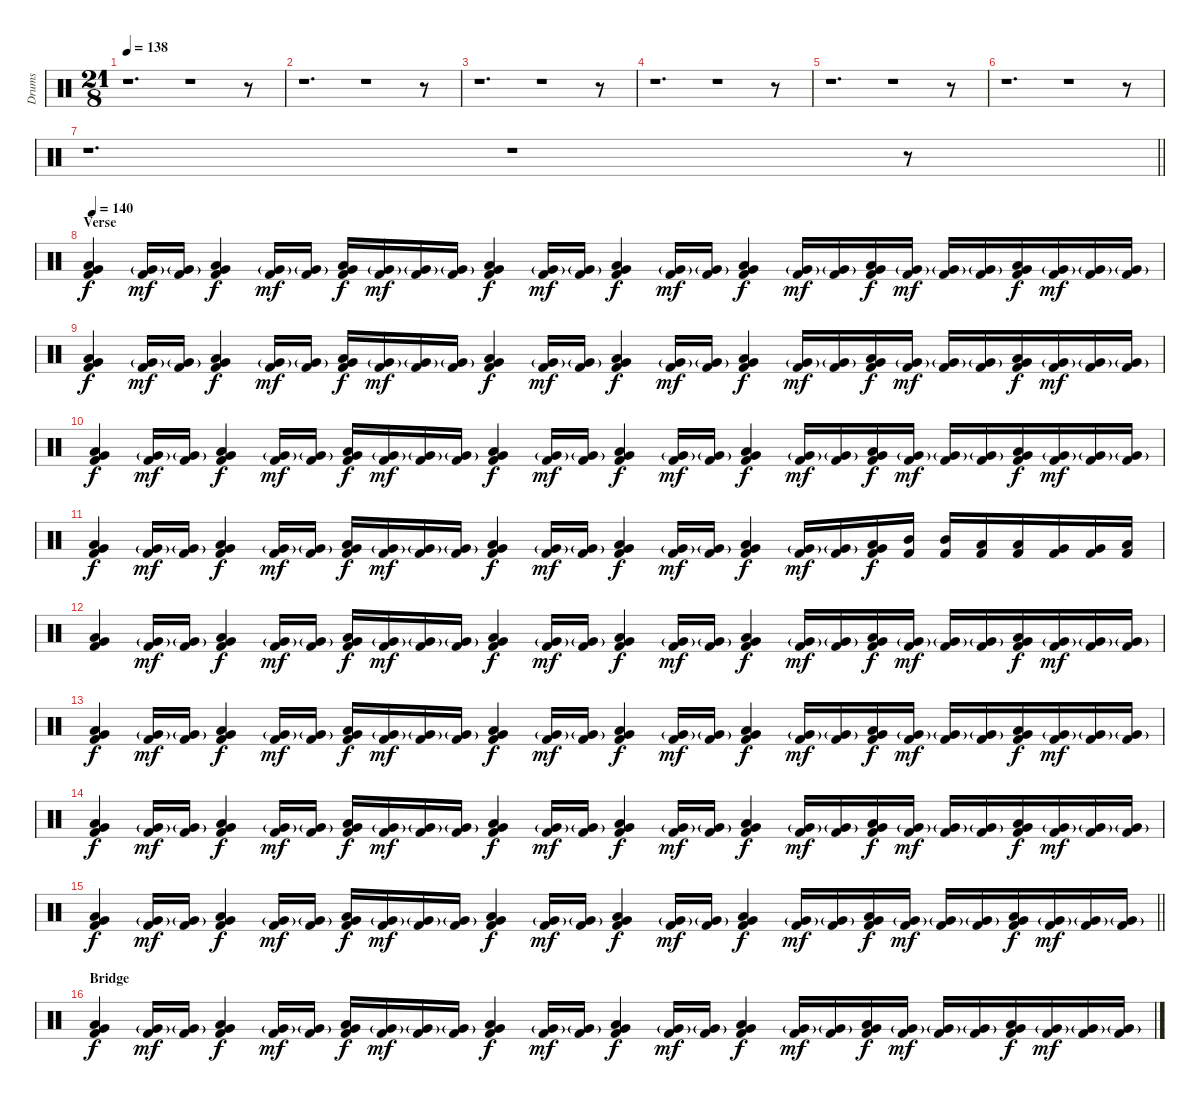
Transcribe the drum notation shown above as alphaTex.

\track ("Drums" "Drums") {instrument percussion}
\staff {score}
\articulation defaults
\ts (21 8)
\tempo 138
\clef neutral
\ks c
r.1{d dy f} r.1 r.8 |
r.1{d} r.1 r.8 |
r.1{d} r.1 r.8 |
r.1{d} r.1 r.8 |
r.1{d} r.1 r.8 |
r.1{d} r.1 r.8 |
\barLineRight lightlight
r.1{d} r.1 r.8 |
\section ("" "Verse")
\tempo 140
("Low Tom (hit)" "Very Low Tom (hit)" "Kick (hit) 2").4 ("Very Low Tom (hit)"{g} "Kick (hit) 2").16{dy mf} ("Very Low Tom (hit)"{g} "Kick (hit) 2").16 ("Low Tom (hit)" "Very Low Tom (hit)" "Kick (hit) 2").4{dy f} ("Very Low Tom (hit)"{g} "Kick (hit) 2").16{dy mf} ("Very Low Tom (hit)"{g} "Kick (hit) 2").16 ("Low Tom (hit)" "Very Low Tom (hit)" "Kick (hit) 2").16{dy f} ("Very Low Tom (hit)"{g} "Kick (hit) 2").16{dy mf} ("Very Low Tom (hit)"{g} "Kick (hit) 2").16 ("Very Low Tom (hit)"{g} "Kick (hit) 2").16 ("Low Tom (hit)" "Very Low Tom (hit)" "Kick (hit) 2").4{dy f} ("Very Low Tom (hit)"{g} "Kick (hit) 2").16{dy mf} ("Very Low Tom (hit)"{g} "Kick (hit) 2").16 ("Low Tom (hit)" "Very Low Tom (hit)" "Kick (hit) 2").4{dy f} ("Very Low Tom (hit)"{g} "Kick (hit) 2").16{dy mf} ("Very Low Tom (hit)"{g} "Kick (hit) 2").16 ("Low Tom (hit)" "Very Low Tom (hit)" "Kick (hit) 2").4{dy f} ("Very Low Tom (hit)"{g} "Kick (hit) 2").16{dy mf} ("Very Low Tom (hit)"{g} "Kick (hit) 2").16 ("Low Tom (hit)" "Very Low Tom (hit)" "Kick (hit) 2").16{dy f} ("Very Low Tom (hit)"{g} "Kick (hit) 2").16{dy mf} ("Very Low Tom (hit)"{g} "Kick (hit) 2").16 ("Very Low Tom (hit)"{g} "Kick (hit) 2").16 ("Low Tom (hit)" "Very Low Tom (hit)" "Kick (hit) 2").16{dy f} ("Very Low Tom (hit)"{g} "Kick (hit) 2").16{dy mf} ("Very Low Tom (hit)"{g} "Kick (hit) 2").16 ("Very Low Tom (hit)"{g} "Kick (hit) 2").16 |
("Low Tom (hit)" "Very Low Tom (hit)" "Kick (hit) 2").4{dy f} ("Very Low Tom (hit)"{g} "Kick (hit) 2").16{dy mf} ("Very Low Tom (hit)"{g} "Kick (hit) 2").16 ("Low Tom (hit)" "Very Low Tom (hit)" "Kick (hit) 2").4{dy f} ("Very Low Tom (hit)"{g} "Kick (hit) 2").16{dy mf} ("Very Low Tom (hit)"{g} "Kick (hit) 2").16 ("Low Tom (hit)" "Very Low Tom (hit)" "Kick (hit) 2").16{dy f} ("Very Low Tom (hit)"{g} "Kick (hit) 2").16{dy mf} ("Very Low Tom (hit)"{g} "Kick (hit) 2").16 ("Very Low Tom (hit)"{g} "Kick (hit) 2").16 ("Low Tom (hit)" "Very Low Tom (hit)" "Kick (hit) 2").4{dy f} ("Very Low Tom (hit)"{g} "Kick (hit) 2").16{dy mf} ("Very Low Tom (hit)"{g} "Kick (hit) 2").16 ("Low Tom (hit)" "Very Low Tom (hit)" "Kick (hit) 2").4{dy f} ("Very Low Tom (hit)"{g} "Kick (hit) 2").16{dy mf} ("Very Low Tom (hit)"{g} "Kick (hit) 2").16 ("Low Tom (hit)" "Very Low Tom (hit)" "Kick (hit) 2").4{dy f} ("Very Low Tom (hit)"{g} "Kick (hit) 2").16{dy mf} ("Very Low Tom (hit)"{g} "Kick (hit) 2").16 ("Low Tom (hit)" "Very Low Tom (hit)" "Kick (hit) 2").16{dy f} ("Very Low Tom (hit)"{g} "Kick (hit) 2").16{dy mf} ("Very Low Tom (hit)"{g} "Kick (hit) 2").16 ("Very Low Tom (hit)"{g} "Kick (hit) 2").16 ("Low Tom (hit)" "Very Low Tom (hit)" "Kick (hit) 2").16{dy f} ("Very Low Tom (hit)"{g} "Kick (hit) 2").16{dy mf} ("Very Low Tom (hit)"{g} "Kick (hit) 2").16 ("Very Low Tom (hit)"{g} "Kick (hit) 2").16 |
("Low Tom (hit)" "Very Low Tom (hit)" "Kick (hit) 2").4{dy f} ("Very Low Tom (hit)"{g} "Kick (hit) 2").16{dy mf} ("Very Low Tom (hit)"{g} "Kick (hit) 2").16 ("Low Tom (hit)" "Very Low Tom (hit)" "Kick (hit) 2").4{dy f} ("Very Low Tom (hit)"{g} "Kick (hit) 2").16{dy mf} ("Very Low Tom (hit)"{g} "Kick (hit) 2").16 ("Low Tom (hit)" "Very Low Tom (hit)" "Kick (hit) 2").16{dy f} ("Very Low Tom (hit)"{g} "Kick (hit) 2").16{dy mf} ("Very Low Tom (hit)"{g} "Kick (hit) 2").16 ("Very Low Tom (hit)"{g} "Kick (hit) 2").16 ("Low Tom (hit)" "Very Low Tom (hit)" "Kick (hit) 2").4{dy f} ("Very Low Tom (hit)"{g} "Kick (hit) 2").16{dy mf} ("Very Low Tom (hit)"{g} "Kick (hit) 2").16 ("Low Tom (hit)" "Very Low Tom (hit)" "Kick (hit) 2").4{dy f} ("Very Low Tom (hit)"{g} "Kick (hit) 2").16{dy mf} ("Very Low Tom (hit)"{g} "Kick (hit) 2").16 ("Low Tom (hit)" "Very Low Tom (hit)" "Kick (hit) 2").4{dy f} ("Very Low Tom (hit)"{g} "Kick (hit) 2").16{dy mf} ("Very Low Tom (hit)"{g} "Kick (hit) 2").16 ("Low Tom (hit)" "Very Low Tom (hit)" "Kick (hit) 2").16{dy f} ("Very Low Tom (hit)"{g} "Kick (hit) 2").16{dy mf} ("Very Low Tom (hit)"{g} "Kick (hit) 2").16 ("Very Low Tom (hit)"{g} "Kick (hit) 2").16 ("Low Tom (hit)" "Very Low Tom (hit)" "Kick (hit) 2").16{dy f} ("Very Low Tom (hit)"{g} "Kick (hit) 2").16{dy mf} ("Very Low Tom (hit)"{g} "Kick (hit) 2").16 ("Very Low Tom (hit)"{g} "Kick (hit) 2").16 |
("Low Tom (hit)" "Very Low Tom (hit)" "Kick (hit) 2").4{dy f} ("Very Low Tom (hit)"{g} "Kick (hit) 2").16{dy mf} ("Very Low Tom (hit)"{g} "Kick (hit) 2").16 ("Low Tom (hit)" "Very Low Tom (hit)" "Kick (hit) 2").4{dy f} ("Very Low Tom (hit)"{g} "Kick (hit) 2").16{dy mf} ("Very Low Tom (hit)"{g} "Kick (hit) 2").16 ("Low Tom (hit)" "Very Low Tom (hit)" "Kick (hit) 2").16{dy f} ("Very Low Tom (hit)"{g} "Kick (hit) 2").16{dy mf} ("Very Low Tom (hit)"{g} "Kick (hit) 2").16 ("Very Low Tom (hit)"{g} "Kick (hit) 2").16 ("Low Tom (hit)" "Very Low Tom (hit)" "Kick (hit) 2").4{dy f} ("Very Low Tom (hit)"{g} "Kick (hit) 2").16{dy mf} ("Very Low Tom (hit)"{g} "Kick (hit) 2").16 ("Low Tom (hit)" "Very Low Tom (hit)" "Kick (hit) 2").4{dy f} ("Very Low Tom (hit)"{g} "Kick (hit) 2").16{dy mf} ("Very Low Tom (hit)"{g} "Kick (hit) 2").16 ("Low Tom (hit)" "Very Low Tom (hit)" "Kick (hit) 2").4{dy f} ("Very Low Tom (hit)"{g} "Kick (hit) 2").16{dy mf} ("Very Low Tom (hit)"{g} "Kick (hit) 2").16 ("Low Tom (hit)" "Very Low Tom (hit)" "Kick (hit) 2").16{dy f} ("Mid Tom (hit)" "Kick (hit) 2").16 ("Mid Tom (hit)" "Kick (hit) 2").16 ("Low Tom (hit)" "Kick (hit) 2").16 ("Low Tom (hit)" "Kick (hit) 2").16 ("Very Low Tom (hit)" "Kick (hit) 2").16 ("Very Low Tom (hit)" "Kick (hit) 2").16 ("Low Floor Tom (hit)" "Kick (hit) 2").16 |
("Low Tom (hit)" "Very Low Tom (hit)" "Kick (hit) 2").4 ("Very Low Tom (hit)"{g} "Kick (hit) 2").16{dy mf} ("Very Low Tom (hit)"{g} "Kick (hit) 2").16 ("Low Tom (hit)" "Very Low Tom (hit)" "Kick (hit) 2").4{dy f} ("Very Low Tom (hit)"{g} "Kick (hit) 2").16{dy mf} ("Very Low Tom (hit)"{g} "Kick (hit) 2").16 ("Low Tom (hit)" "Very Low Tom (hit)" "Kick (hit) 2").16{dy f} ("Very Low Tom (hit)"{g} "Kick (hit) 2").16{dy mf} ("Very Low Tom (hit)"{g} "Kick (hit) 2").16 ("Very Low Tom (hit)"{g} "Kick (hit) 2").16 ("Low Tom (hit)" "Very Low Tom (hit)" "Kick (hit) 2").4{dy f} ("Very Low Tom (hit)"{g} "Kick (hit) 2").16{dy mf} ("Very Low Tom (hit)"{g} "Kick (hit) 2").16 ("Low Tom (hit)" "Very Low Tom (hit)" "Kick (hit) 2").4{dy f} ("Very Low Tom (hit)"{g} "Kick (hit) 2").16{dy mf} ("Very Low Tom (hit)"{g} "Kick (hit) 2").16 ("Low Tom (hit)" "Very Low Tom (hit)" "Kick (hit) 2").4{dy f} ("Very Low Tom (hit)"{g} "Kick (hit) 2").16{dy mf} ("Very Low Tom (hit)"{g} "Kick (hit) 2").16 ("Low Tom (hit)" "Very Low Tom (hit)" "Kick (hit) 2").16{dy f} ("Very Low Tom (hit)"{g} "Kick (hit) 2").16{dy mf} ("Very Low Tom (hit)"{g} "Kick (hit) 2").16 ("Very Low Tom (hit)"{g} "Kick (hit) 2").16 ("Low Tom (hit)" "Very Low Tom (hit)" "Kick (hit) 2").16{dy f} ("Very Low Tom (hit)"{g} "Kick (hit) 2").16{dy mf} ("Very Low Tom (hit)"{g} "Kick (hit) 2").16 ("Very Low Tom (hit)"{g} "Kick (hit) 2").16 |
("Low Tom (hit)" "Very Low Tom (hit)" "Kick (hit) 2").4{dy f} ("Very Low Tom (hit)"{g} "Kick (hit) 2").16{dy mf} ("Very Low Tom (hit)"{g} "Kick (hit) 2").16 ("Low Tom (hit)" "Very Low Tom (hit)" "Kick (hit) 2").4{dy f} ("Very Low Tom (hit)"{g} "Kick (hit) 2").16{dy mf} ("Very Low Tom (hit)"{g} "Kick (hit) 2").16 ("Low Tom (hit)" "Very Low Tom (hit)" "Kick (hit) 2").16{dy f} ("Very Low Tom (hit)"{g} "Kick (hit) 2").16{dy mf} ("Very Low Tom (hit)"{g} "Kick (hit) 2").16 ("Very Low Tom (hit)"{g} "Kick (hit) 2").16 ("Low Tom (hit)" "Very Low Tom (hit)" "Kick (hit) 2").4{dy f} ("Very Low Tom (hit)"{g} "Kick (hit) 2").16{dy mf} ("Very Low Tom (hit)"{g} "Kick (hit) 2").16 ("Low Tom (hit)" "Very Low Tom (hit)" "Kick (hit) 2").4{dy f} ("Very Low Tom (hit)"{g} "Kick (hit) 2").16{dy mf} ("Very Low Tom (hit)"{g} "Kick (hit) 2").16 ("Low Tom (hit)" "Very Low Tom (hit)" "Kick (hit) 2").4{dy f} ("Very Low Tom (hit)"{g} "Kick (hit) 2").16{dy mf} ("Very Low Tom (hit)"{g} "Kick (hit) 2").16 ("Low Tom (hit)" "Very Low Tom (hit)" "Kick (hit) 2").16{dy f} ("Very Low Tom (hit)"{g} "Kick (hit) 2").16{dy mf} ("Very Low Tom (hit)"{g} "Kick (hit) 2").16 ("Very Low Tom (hit)"{g} "Kick (hit) 2").16 ("Low Tom (hit)" "Very Low Tom (hit)" "Kick (hit) 2").16{dy f} ("Very Low Tom (hit)"{g} "Kick (hit) 2").16{dy mf} ("Very Low Tom (hit)"{g} "Kick (hit) 2").16 ("Very Low Tom (hit)"{g} "Kick (hit) 2").16 |
("Low Tom (hit)" "Very Low Tom (hit)" "Kick (hit) 2").4{dy f} ("Very Low Tom (hit)"{g} "Kick (hit) 2").16{dy mf} ("Very Low Tom (hit)"{g} "Kick (hit) 2").16 ("Low Tom (hit)" "Very Low Tom (hit)" "Kick (hit) 2").4{dy f} ("Very Low Tom (hit)"{g} "Kick (hit) 2").16{dy mf} ("Very Low Tom (hit)"{g} "Kick (hit) 2").16 ("Low Tom (hit)" "Very Low Tom (hit)" "Kick (hit) 2").16{dy f} ("Very Low Tom (hit)"{g} "Kick (hit) 2").16{dy mf} ("Very Low Tom (hit)"{g} "Kick (hit) 2").16 ("Very Low Tom (hit)"{g} "Kick (hit) 2").16 ("Low Tom (hit)" "Very Low Tom (hit)" "Kick (hit) 2").4{dy f} ("Very Low Tom (hit)"{g} "Kick (hit) 2").16{dy mf} ("Very Low Tom (hit)"{g} "Kick (hit) 2").16 ("Low Tom (hit)" "Very Low Tom (hit)" "Kick (hit) 2").4{dy f} ("Very Low Tom (hit)"{g} "Kick (hit) 2").16{dy mf} ("Very Low Tom (hit)"{g} "Kick (hit) 2").16 ("Low Tom (hit)" "Very Low Tom (hit)" "Kick (hit) 2").4{dy f} ("Very Low Tom (hit)"{g} "Kick (hit) 2").16{dy mf} ("Very Low Tom (hit)"{g} "Kick (hit) 2").16 ("Low Tom (hit)" "Very Low Tom (hit)" "Kick (hit) 2").16{dy f} ("Very Low Tom (hit)"{g} "Kick (hit) 2").16{dy mf} ("Very Low Tom (hit)"{g} "Kick (hit) 2").16 ("Very Low Tom (hit)"{g} "Kick (hit) 2").16 ("Low Tom (hit)" "Very Low Tom (hit)" "Kick (hit) 2").16{dy f} ("Very Low Tom (hit)"{g} "Kick (hit) 2").16{dy mf} ("Very Low Tom (hit)"{g} "Kick (hit) 2").16 ("Very Low Tom (hit)"{g} "Kick (hit) 2").16 |
\barLineRight lightlight
("Low Tom (hit)" "Very Low Tom (hit)" "Kick (hit) 2").4{dy f} ("Very Low Tom (hit)"{g} "Kick (hit) 2").16{dy mf} ("Very Low Tom (hit)"{g} "Kick (hit) 2").16 ("Low Tom (hit)" "Very Low Tom (hit)" "Kick (hit) 2").4{dy f} ("Very Low Tom (hit)"{g} "Kick (hit) 2").16{dy mf} ("Very Low Tom (hit)"{g} "Kick (hit) 2").16 ("Low Tom (hit)" "Very Low Tom (hit)" "Kick (hit) 2").16{dy f} ("Very Low Tom (hit)"{g} "Kick (hit) 2").16{dy mf} ("Very Low Tom (hit)"{g} "Kick (hit) 2").16 ("Very Low Tom (hit)"{g} "Kick (hit) 2").16 ("Low Tom (hit)" "Very Low Tom (hit)" "Kick (hit) 2").4{dy f} ("Very Low Tom (hit)"{g} "Kick (hit) 2").16{dy mf} ("Very Low Tom (hit)"{g} "Kick (hit) 2").16 ("Low Tom (hit)" "Very Low Tom (hit)" "Kick (hit) 2").4{dy f} ("Very Low Tom (hit)"{g} "Kick (hit) 2").16{dy mf} ("Very Low Tom (hit)"{g} "Kick (hit) 2").16 ("Low Tom (hit)" "Very Low Tom (hit)" "Kick (hit) 2").4{dy f} ("Very Low Tom (hit)"{g} "Kick (hit) 2").16{dy mf} ("Very Low Tom (hit)"{g} "Kick (hit) 2").16 ("Low Tom (hit)" "Very Low Tom (hit)" "Kick (hit) 2").16{dy f} ("Very Low Tom (hit)"{g} "Kick (hit) 2").16{dy mf} ("Very Low Tom (hit)"{g} "Kick (hit) 2").16 ("Very Low Tom (hit)"{g} "Kick (hit) 2").16 ("Low Tom (hit)" "Very Low Tom (hit)" "Kick (hit) 2").16{dy f} ("Very Low Tom (hit)"{g} "Kick (hit) 2").16{dy mf} ("Very Low Tom (hit)"{g} "Kick (hit) 2").16 ("Very Low Tom (hit)"{g} "Kick (hit) 2").16 |
\section ("" "Bridge")
("Low Tom (hit)" "Very Low Tom (hit)" "Kick (hit) 2").4{dy f} ("Very Low Tom (hit)"{g} "Kick (hit) 2").16{dy mf} ("Very Low Tom (hit)"{g} "Kick (hit) 2").16 ("Low Tom (hit)" "Very Low Tom (hit)" "Kick (hit) 2").4{dy f} ("Very Low Tom (hit)"{g} "Kick (hit) 2").16{dy mf} ("Very Low Tom (hit)"{g} "Kick (hit) 2").16 ("Low Tom (hit)" "Very Low Tom (hit)" "Kick (hit) 2").16{dy f} ("Very Low Tom (hit)"{g} "Kick (hit) 2").16{dy mf} ("Very Low Tom (hit)"{g} "Kick (hit) 2").16 ("Very Low Tom (hit)"{g} "Kick (hit) 2").16 ("Low Tom (hit)" "Very Low Tom (hit)" "Kick (hit) 2").4{dy f} ("Very Low Tom (hit)"{g} "Kick (hit) 2").16{dy mf} ("Very Low Tom (hit)"{g} "Kick (hit) 2").16 ("Low Tom (hit)" "Very Low Tom (hit)" "Kick (hit) 2").4{dy f} ("Very Low Tom (hit)"{g} "Kick (hit) 2").16{dy mf} ("Very Low Tom (hit)"{g} "Kick (hit) 2").16 ("Low Tom (hit)" "Very Low Tom (hit)" "Kick (hit) 2").4{dy f} ("Very Low Tom (hit)"{g} "Kick (hit) 2").16{dy mf} ("Very Low Tom (hit)"{g} "Kick (hit) 2").16 ("Low Tom (hit)" "Very Low Tom (hit)" "Kick (hit) 2").16{dy f} ("Very Low Tom (hit)"{g} "Kick (hit) 2").16{dy mf} ("Very Low Tom (hit)"{g} "Kick (hit) 2").16 ("Very Low Tom (hit)"{g} "Kick (hit) 2").16 ("Low Tom (hit)" "Very Low Tom (hit)" "Kick (hit) 2").16{dy f} ("Very Low Tom (hit)"{g} "Kick (hit) 2").16{dy mf} ("Very Low Tom (hit)"{g} "Kick (hit) 2").16 ("Very Low Tom (hit)"{g} "Kick (hit) 2").16
